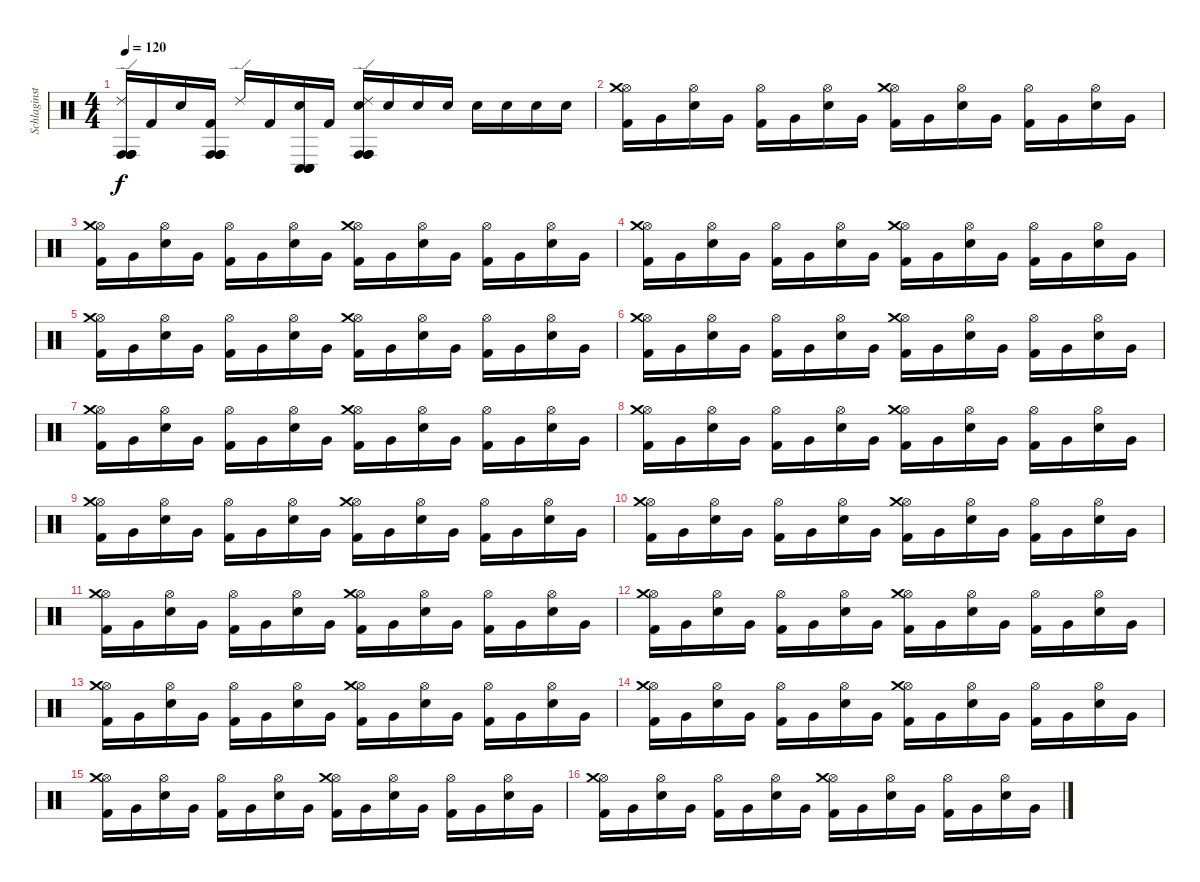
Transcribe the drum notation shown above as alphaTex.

\track ("Schlaginstrumente - Auswahl" "Schlaginst") {instrument percussion}
\staff {score}
\articulation defaults
\ts (4 4)
\tempo 120
\clef neutral
\ks c
("Conga high (hit)" "Ride (edge) 2" "Conga high (hit)" "Conga high (hit)" "Conga high (hit)").16{dy f} "Kick (hit) 2".16 "Electric Snare (hit)".16 ("Kick (hit) 2" "Conga high (hit)" "Conga high (hit)" "Conga high (hit)" "Conga high (hit)").16 "Ride (edge) 2".16 "Kick (hit) 2".16 ("Electric Snare (hit)" "Conga low (hit)" "Conga low (hit)" "Conga low (hit)" "Conga low (hit)").16 "Kick (hit) 2".16 ("Electric Snare (hit)" "Conga high (hit)" "Ride (edge) 2" "Conga high (hit)" "Conga high (hit)" "Conga high (hit)").16 "Electric Snare (hit)".16 "Electric Snare (hit)".16 "Electric Snare (hit)".16 "Electric Snare (hit)".16 "Electric Snare (hit)".16 "Electric Snare (hit)".16 "Electric Snare (hit)".16 |
("Kick (hit) 2" "Hi-Hat (open)" "Crash medium (hit)").16 "Very Low Tom (hit)".16 ("Electric Snare (hit)" "Hi-Hat (open)").16 "Very Low Tom (hit)".16 ("Kick (hit) 2" "Hi-Hat (open)").16 "Very Low Tom (hit)".16 ("Electric Snare (hit)" "Hi-Hat (open)").16 "Very Low Tom (hit)".16 ("Kick (hit) 2" "Hi-Hat (open)" "Crash medium (hit)").16 "Very Low Tom (hit)".16 ("Electric Snare (hit)" "Hi-Hat (open)").16 "Very Low Tom (hit)".16 ("Kick (hit) 2" "Hi-Hat (open)").16 "Very Low Tom (hit)".16 ("Electric Snare (hit)" "Hi-Hat (open)").16 "Very Low Tom (hit)".16 |
("Kick (hit) 2" "Hi-Hat (open)" "Crash medium (hit)").16 "Very Low Tom (hit)".16 ("Electric Snare (hit)" "Hi-Hat (open)").16 "Very Low Tom (hit)".16 ("Kick (hit) 2" "Hi-Hat (open)").16 "Very Low Tom (hit)".16 ("Electric Snare (hit)" "Hi-Hat (open)").16 "Very Low Tom (hit)".16 ("Kick (hit) 2" "Hi-Hat (open)" "Crash medium (hit)").16 "Very Low Tom (hit)".16 ("Electric Snare (hit)" "Hi-Hat (open)").16 "Very Low Tom (hit)".16 ("Kick (hit) 2" "Hi-Hat (open)").16 "Very Low Tom (hit)".16 ("Electric Snare (hit)" "Hi-Hat (open)").16 "Very Low Tom (hit)".16 |
("Kick (hit) 2" "Hi-Hat (open)" "Crash medium (hit)").16 "Very Low Tom (hit)".16 ("Electric Snare (hit)" "Hi-Hat (open)").16 "Very Low Tom (hit)".16 ("Kick (hit) 2" "Hi-Hat (open)").16 "Very Low Tom (hit)".16 ("Electric Snare (hit)" "Hi-Hat (open)").16 "Very Low Tom (hit)".16 ("Kick (hit) 2" "Hi-Hat (open)" "Crash medium (hit)").16 "Very Low Tom (hit)".16 ("Electric Snare (hit)" "Hi-Hat (open)").16 "Very Low Tom (hit)".16 ("Kick (hit) 2" "Hi-Hat (open)").16 "Very Low Tom (hit)".16 ("Electric Snare (hit)" "Hi-Hat (open)").16 "Very Low Tom (hit)".16 |
("Kick (hit) 2" "Hi-Hat (open)" "Crash medium (hit)").16 "Very Low Tom (hit)".16 ("Electric Snare (hit)" "Hi-Hat (open)").16 "Very Low Tom (hit)".16 ("Kick (hit) 2" "Hi-Hat (open)").16 "Very Low Tom (hit)".16 ("Electric Snare (hit)" "Hi-Hat (open)").16 "Very Low Tom (hit)".16 ("Kick (hit) 2" "Hi-Hat (open)" "Crash medium (hit)").16 "Very Low Tom (hit)".16 ("Electric Snare (hit)" "Hi-Hat (open)").16 "Very Low Tom (hit)".16 ("Kick (hit) 2" "Hi-Hat (open)").16 "Very Low Tom (hit)".16 ("Electric Snare (hit)" "Hi-Hat (open)").16 "Very Low Tom (hit)".16 |
("Kick (hit) 2" "Hi-Hat (open)" "Crash medium (hit)").16 "Very Low Tom (hit)".16 ("Electric Snare (hit)" "Hi-Hat (open)").16 "Very Low Tom (hit)".16 ("Kick (hit) 2" "Hi-Hat (open)").16 "Very Low Tom (hit)".16 ("Electric Snare (hit)" "Hi-Hat (open)").16 "Very Low Tom (hit)".16 ("Kick (hit) 2" "Hi-Hat (open)" "Crash medium (hit)").16 "Very Low Tom (hit)".16 ("Electric Snare (hit)" "Hi-Hat (open)").16 "Very Low Tom (hit)".16 ("Kick (hit) 2" "Hi-Hat (open)").16 "Very Low Tom (hit)".16 ("Electric Snare (hit)" "Hi-Hat (open)").16 "Very Low Tom (hit)".16 |
("Kick (hit) 2" "Hi-Hat (open)" "Crash medium (hit)").16 "Very Low Tom (hit)".16 ("Electric Snare (hit)" "Hi-Hat (open)").16 "Very Low Tom (hit)".16 ("Kick (hit) 2" "Hi-Hat (open)").16 "Very Low Tom (hit)".16 ("Electric Snare (hit)" "Hi-Hat (open)").16 "Very Low Tom (hit)".16 ("Kick (hit) 2" "Hi-Hat (open)" "Crash medium (hit)").16 "Very Low Tom (hit)".16 ("Electric Snare (hit)" "Hi-Hat (open)").16 "Very Low Tom (hit)".16 ("Kick (hit) 2" "Hi-Hat (open)").16 "Very Low Tom (hit)".16 ("Electric Snare (hit)" "Hi-Hat (open)").16 "Very Low Tom (hit)".16 |
("Kick (hit) 2" "Hi-Hat (open)" "Crash medium (hit)").16 "Very Low Tom (hit)".16 ("Electric Snare (hit)" "Hi-Hat (open)").16 "Very Low Tom (hit)".16 ("Kick (hit) 2" "Hi-Hat (open)").16 "Very Low Tom (hit)".16 ("Electric Snare (hit)" "Hi-Hat (open)").16 "Very Low Tom (hit)".16 ("Kick (hit) 2" "Hi-Hat (open)" "Crash medium (hit)").16 "Very Low Tom (hit)".16 ("Electric Snare (hit)" "Hi-Hat (open)").16 "Very Low Tom (hit)".16 ("Kick (hit) 2" "Hi-Hat (open)").16 "Very Low Tom (hit)".16 ("Electric Snare (hit)" "Hi-Hat (open)").16 "Very Low Tom (hit)".16 |
("Kick (hit) 2" "Hi-Hat (open)" "Crash medium (hit)").16 "Very Low Tom (hit)".16 ("Electric Snare (hit)" "Hi-Hat (open)").16 "Very Low Tom (hit)".16 ("Kick (hit) 2" "Hi-Hat (open)").16 "Very Low Tom (hit)".16 ("Electric Snare (hit)" "Hi-Hat (open)").16 "Very Low Tom (hit)".16 ("Kick (hit) 2" "Hi-Hat (open)" "Crash medium (hit)").16 "Very Low Tom (hit)".16 ("Electric Snare (hit)" "Hi-Hat (open)").16 "Very Low Tom (hit)".16 ("Kick (hit) 2" "Hi-Hat (open)").16 "Very Low Tom (hit)".16 ("Electric Snare (hit)" "Hi-Hat (open)").16 "Very Low Tom (hit)".16 |
("Kick (hit) 2" "Hi-Hat (open)" "Crash medium (hit)").16 "Very Low Tom (hit)".16 ("Electric Snare (hit)" "Hi-Hat (open)").16 "Very Low Tom (hit)".16 ("Kick (hit) 2" "Hi-Hat (open)").16 "Very Low Tom (hit)".16 ("Electric Snare (hit)" "Hi-Hat (open)").16 "Very Low Tom (hit)".16 ("Kick (hit) 2" "Hi-Hat (open)" "Crash medium (hit)").16 "Very Low Tom (hit)".16 ("Electric Snare (hit)" "Hi-Hat (open)").16 "Very Low Tom (hit)".16 ("Kick (hit) 2" "Hi-Hat (open)").16 "Very Low Tom (hit)".16 ("Electric Snare (hit)" "Hi-Hat (open)").16 "Very Low Tom (hit)".16 |
("Kick (hit) 2" "Hi-Hat (open)" "Crash medium (hit)").16 "Very Low Tom (hit)".16 ("Electric Snare (hit)" "Hi-Hat (open)").16 "Very Low Tom (hit)".16 ("Kick (hit) 2" "Hi-Hat (open)").16 "Very Low Tom (hit)".16 ("Electric Snare (hit)" "Hi-Hat (open)").16 "Very Low Tom (hit)".16 ("Kick (hit) 2" "Hi-Hat (open)" "Crash medium (hit)").16 "Very Low Tom (hit)".16 ("Electric Snare (hit)" "Hi-Hat (open)").16 "Very Low Tom (hit)".16 ("Kick (hit) 2" "Hi-Hat (open)").16 "Very Low Tom (hit)".16 ("Electric Snare (hit)" "Hi-Hat (open)").16 "Very Low Tom (hit)".16 |
("Kick (hit) 2" "Hi-Hat (open)" "Crash medium (hit)").16 "Very Low Tom (hit)".16 ("Electric Snare (hit)" "Hi-Hat (open)").16 "Very Low Tom (hit)".16 ("Kick (hit) 2" "Hi-Hat (open)").16 "Very Low Tom (hit)".16 ("Electric Snare (hit)" "Hi-Hat (open)").16 "Very Low Tom (hit)".16 ("Kick (hit) 2" "Hi-Hat (open)" "Crash medium (hit)").16 "Very Low Tom (hit)".16 ("Electric Snare (hit)" "Hi-Hat (open)").16 "Very Low Tom (hit)".16 ("Kick (hit) 2" "Hi-Hat (open)").16 "Very Low Tom (hit)".16 ("Electric Snare (hit)" "Hi-Hat (open)").16 "Very Low Tom (hit)".16 |
("Kick (hit) 2" "Hi-Hat (open)" "Crash medium (hit)").16 "Very Low Tom (hit)".16 ("Electric Snare (hit)" "Hi-Hat (open)").16 "Very Low Tom (hit)".16 ("Kick (hit) 2" "Hi-Hat (open)").16 "Very Low Tom (hit)".16 ("Electric Snare (hit)" "Hi-Hat (open)").16 "Very Low Tom (hit)".16 ("Kick (hit) 2" "Hi-Hat (open)" "Crash medium (hit)").16 "Very Low Tom (hit)".16 ("Electric Snare (hit)" "Hi-Hat (open)").16 "Very Low Tom (hit)".16 ("Kick (hit) 2" "Hi-Hat (open)").16 "Very Low Tom (hit)".16 ("Electric Snare (hit)" "Hi-Hat (open)").16 "Very Low Tom (hit)".16 |
("Kick (hit) 2" "Hi-Hat (open)" "Crash medium (hit)").16 "Very Low Tom (hit)".16 ("Electric Snare (hit)" "Hi-Hat (open)").16 "Very Low Tom (hit)".16 ("Kick (hit) 2" "Hi-Hat (open)").16 "Very Low Tom (hit)".16 ("Electric Snare (hit)" "Hi-Hat (open)").16 "Very Low Tom (hit)".16 ("Kick (hit) 2" "Hi-Hat (open)" "Crash medium (hit)").16 "Very Low Tom (hit)".16 ("Electric Snare (hit)" "Hi-Hat (open)").16 "Very Low Tom (hit)".16 ("Kick (hit) 2" "Hi-Hat (open)").16 "Very Low Tom (hit)".16 ("Electric Snare (hit)" "Hi-Hat (open)").16 "Very Low Tom (hit)".16 |
("Kick (hit) 2" "Hi-Hat (open)" "Crash medium (hit)").16 "Very Low Tom (hit)".16 ("Electric Snare (hit)" "Hi-Hat (open)").16 "Very Low Tom (hit)".16 ("Kick (hit) 2" "Hi-Hat (open)").16 "Very Low Tom (hit)".16 ("Electric Snare (hit)" "Hi-Hat (open)").16 "Very Low Tom (hit)".16 ("Kick (hit) 2" "Hi-Hat (open)" "Crash medium (hit)").16 "Very Low Tom (hit)".16 ("Electric Snare (hit)" "Hi-Hat (open)").16 "Very Low Tom (hit)".16 ("Kick (hit) 2" "Hi-Hat (open)").16 "Very Low Tom (hit)".16 ("Electric Snare (hit)" "Hi-Hat (open)").16 "Very Low Tom (hit)".16 |
("Kick (hit) 2" "Hi-Hat (open)" "Crash medium (hit)").16 "Very Low Tom (hit)".16 ("Electric Snare (hit)" "Hi-Hat (open)").16 "Very Low Tom (hit)".16 ("Kick (hit) 2" "Hi-Hat (open)").16 "Very Low Tom (hit)".16 ("Electric Snare (hit)" "Hi-Hat (open)").16 "Very Low Tom (hit)".16 ("Kick (hit) 2" "Hi-Hat (open)" "Crash medium (hit)").16 "Very Low Tom (hit)".16 ("Electric Snare (hit)" "Hi-Hat (open)").16 "Very Low Tom (hit)".16 ("Kick (hit) 2" "Hi-Hat (open)").16 "Very Low Tom (hit)".16 ("Electric Snare (hit)" "Hi-Hat (open)").16 "Very Low Tom (hit)".16
